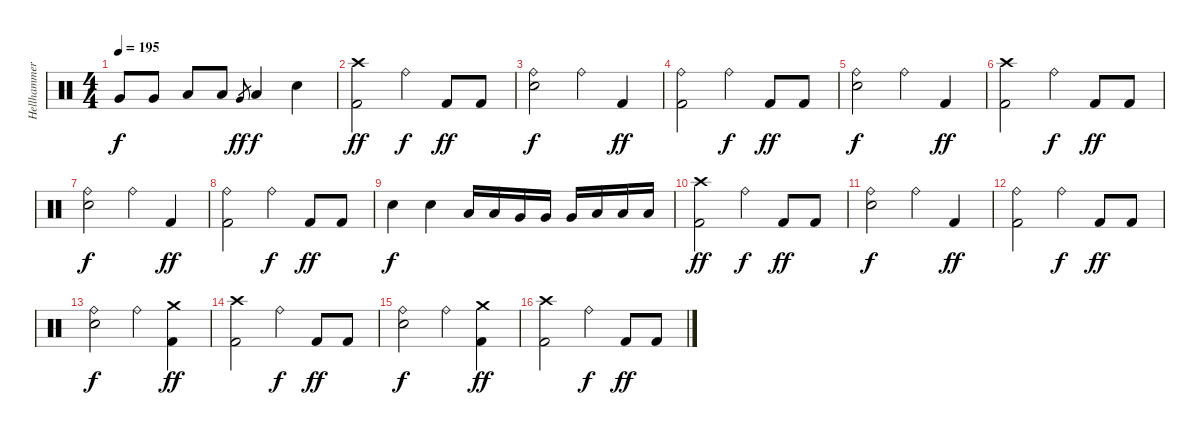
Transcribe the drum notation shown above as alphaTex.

\track ("Hellhammer" "Hellhammer") {instrument percussion}
\staff {score}
\articulation defaults
\ts (4 4)
\tempo 195
\clef neutral
\ks c "Very Low Tom (hit)".8{dy f} "Very Low Tom (hit)".8 "Low Floor Tom (hit)".8 "Low Floor Tom (hit)".8 "Very Low Tom (hit)".8{gr dy ff} "Low Floor Tom (hit)".4{dy f} "Electric Snare (hit)".4
|
("Crash high (hit)" "Kick (hit) 2").2{dy ff} "Ride (bell)".4{dy f} "Kick (hit) 2".8{dy ff} "Kick (hit) 2".8 |
("Ride (bell)" "Electric Snare (hit)").2{dy f} "Ride (bell)".4 "Kick (hit) 2".4{dy ff} |
("Ride (bell)" "Kick (hit) 2").2 "Ride (bell)".4{dy f} "Kick (hit) 2".8{dy ff} "Kick (hit) 2".8 |
("Ride (bell)" "Electric Snare (hit)").2{dy f} "Ride (bell)".4 "Kick (hit) 2".4{dy ff} |
("Crash high (hit)" "Kick (hit) 2").2 "Ride (bell)".4{dy f} "Kick (hit) 2".8{dy ff} "Kick (hit) 2".8 |
("Ride (bell)" "Electric Snare (hit)").2{dy f} "Ride (bell)".4 "Kick (hit) 2".4{dy ff} |
("Ride (bell)" "Kick (hit) 2").2 "Ride (bell)".4{dy f} "Kick (hit) 2".8{dy ff} "Kick (hit) 2".8 |
"Electric Snare (hit)".4{dy f} "Electric Snare (hit)".4 "Low Tom (hit)".16 "Low Tom (hit)".16 "Very Low Tom (hit)".16 "Very Low Tom (hit)".16 "Very Low Tom (hit)".16 "Low Floor Tom (hit)".16 "Low Floor Tom (hit)".16 "Low Floor Tom (hit)".16 |
("Crash high (hit)" "Kick (hit) 2").2{dy ff} "Ride (bell)".4{dy f} "Kick (hit) 2".8{dy ff} "Kick (hit) 2".8 |
("Ride (bell)" "Electric Snare (hit)").2{dy f} "Ride (bell)".4 "Kick (hit) 2".4{dy ff} |
("Ride (bell)" "Kick (hit) 2").2 "Ride (bell)".4{dy f} "Kick (hit) 2".8{dy ff} "Kick (hit) 2".8 |
("Ride (bell)" "Electric Snare (hit)").2{dy f} "Ride (bell)".4 ("Crash medium (hit)" "Kick (hit) 2").4{dy ff} |
("Crash high (hit)" "Kick (hit) 2").2 "Ride (bell)".4{dy f} "Kick (hit) 2".8{dy ff} "Kick (hit) 2".8 |
("Ride (bell)" "Electric Snare (hit)").2{dy f} "Ride (bell)".4 ("Crash medium (hit)" "Kick (hit) 2").4{dy ff} |
("Crash high (hit)" "Kick (hit) 2").2 "Ride (bell)".4{dy f} "Kick (hit) 2".8{dy ff} "Kick (hit) 2".8
